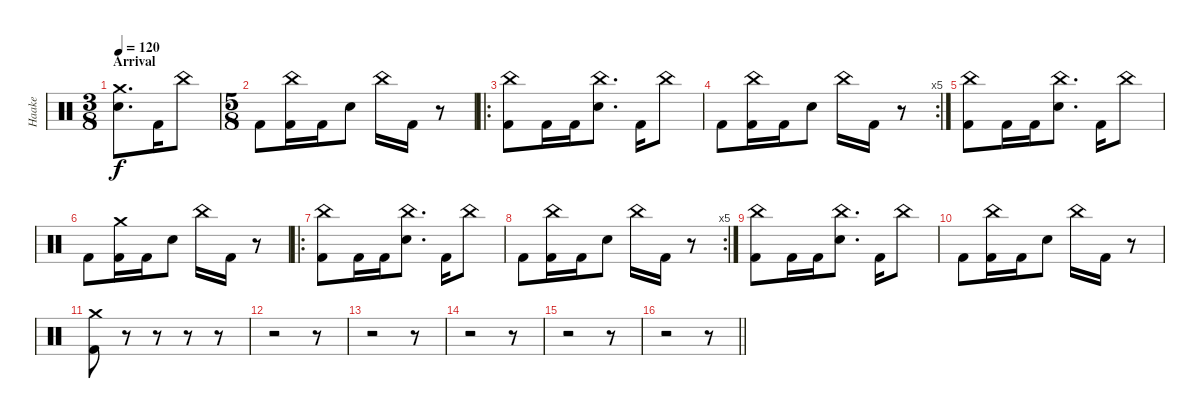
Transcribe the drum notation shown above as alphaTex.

\track ("Haake" "Haake") {instrument percussion}
\staff {score}
\articulation defaults
\ts (3 8)
\section ("" "Arrival")
\tempo 120
\clef neutral
\ks c
("Crash medium (hit)" "Electric Snare (hit)").8{d dy f} "Kick (hit) 2".16 "China (hit)".8 |
\ts (5 8)
"Kick (hit) 2".8 ("China (hit)" "Kick (hit) 2").16 "Kick (hit) 2".16 "Electric Snare (hit)".8 "China (hit)".16 "Kick (hit) 2".16 r.8 |
\ro
("China (hit)" "Kick (hit) 2").8 "Kick (hit) 2".16 "Kick (hit) 2".16 ("China (hit)" "Electric Snare (hit)").8{d} "Kick (hit) 2".16 "China (hit)".8 |
\rc 5 "Kick (hit) 2".8
("China (hit)" "Kick (hit) 2").16 "Kick (hit) 2".16 "Electric Snare (hit)".8 "China (hit)".16 "Kick (hit) 2".16 r.8 |
("China (hit)" "Kick (hit) 2").8 "Kick (hit) 2".16 "Kick (hit) 2".16 ("China (hit)" "Electric Snare (hit)").8{d} "Kick (hit) 2".16 "China (hit)".8 |
"Kick (hit) 2".8 ("Crash medium (hit)" "Kick (hit) 2").16 "Kick (hit) 2".16 "Electric Snare (hit)".8 "China (hit)".16 "Kick (hit) 2".16 r.8 |
\ro
("China (hit)" "Kick (hit) 2").8 "Kick (hit) 2".16 "Kick (hit) 2".16 ("China (hit)" "Electric Snare (hit)").8{d} "Kick (hit) 2".16 "China (hit)".8 |
\rc 5 "Kick (hit) 2".8
("China (hit)" "Kick (hit) 2").16 "Kick (hit) 2".16 "Electric Snare (hit)".8 "China (hit)".16 "Kick (hit) 2".16 r.8 |
("China (hit)" "Kick (hit) 2").8 "Kick (hit) 2".16 "Kick (hit) 2".16 ("China (hit)" "Electric Snare (hit)").8{d} "Kick (hit) 2".16 "China (hit)".8 |
"Kick (hit) 2".8 ("China (hit)" "Kick (hit) 2").16 "Kick (hit) 2".16 "Electric Snare (hit)".8 "China (hit)".16 "Kick (hit) 2".16 r.8 |
("Crash medium (hit)" "Kick (hit) 2").8 r.8 r.8 r.8 r.8 |
r.2 r.8 |
r.2 r.8 |
r.2 r.8 |
r.2 r.8 |
\barLineRight lightlight
r.2 r.8
